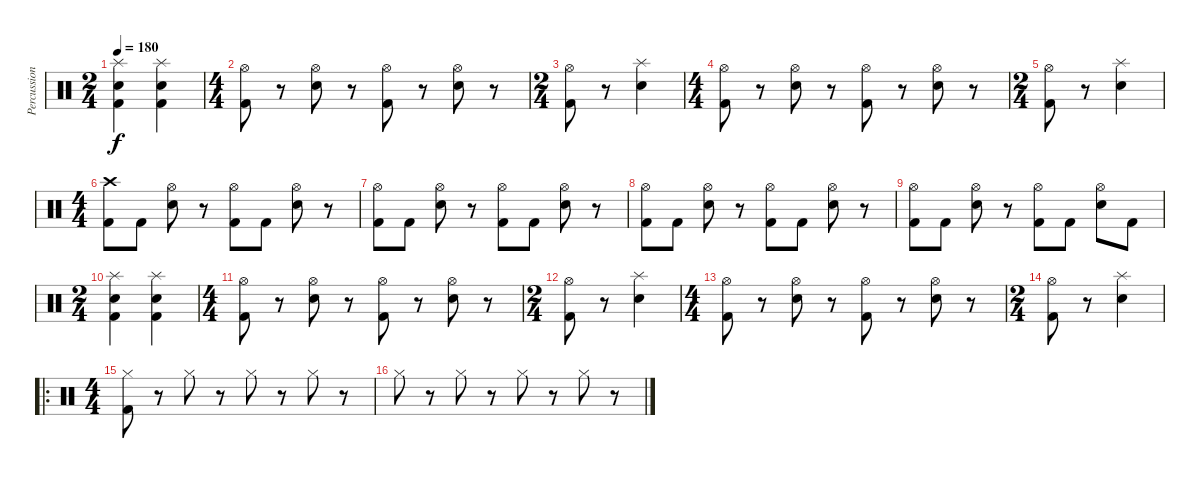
\track ("Percussion" "Percussion") {instrument percussion}
\staff {score}
\articulation defaults
\ts (2 4)
\tempo 180
\clef neutral
\ks c
("Splash (hit)" "Electric Snare (hit)" "Kick (hit) 2").4{dy f} ("Splash (hit)" "Electric Snare (hit)" "Kick (hit) 2").4 |
\ts (4 4)
("Hi-Hat (open)" "Kick (hit) 2").8 r.8 ("Hi-Hat (open)" "Electric Snare (hit)").8 r.8 ("Hi-Hat (open)" "Kick (hit) 2").8 r.8 ("Hi-Hat (open)" "Electric Snare (hit)").8 r.8 |
\ts (2 4)
("Hi-Hat (open)" "Kick (hit) 2").8 r.8 ("Splash (hit)" "Electric Snare (hit)").4 |
\ts (4 4)
("Hi-Hat (open)" "Kick (hit) 2").8 r.8 ("Hi-Hat (open)" "Electric Snare (hit)").8 r.8 ("Hi-Hat (open)" "Kick (hit) 2").8 r.8 ("Hi-Hat (open)" "Electric Snare (hit)").8 r.8 |
\ts (2 4)
("Hi-Hat (open)" "Kick (hit) 2").8 r.8 ("Splash (hit)" "Electric Snare (hit)").4 |
\ts (4 4)
("Crash high (hit)" "Kick (hit) 2").8 "Kick (hit) 2".8 ("Hi-Hat (open)" "Electric Snare (hit)").8 r.8 ("Hi-Hat (open)" "Kick (hit) 2").8 "Kick (hit) 2".8 ("Hi-Hat (open)" "Electric Snare (hit)").8 r.8 |
("Hi-Hat (open)" "Kick (hit) 2").8 "Kick (hit) 2".8 ("Hi-Hat (open)" "Electric Snare (hit)").8 r.8 ("Hi-Hat (open)" "Kick (hit) 2").8 "Kick (hit) 2".8 ("Hi-Hat (open)" "Electric Snare (hit)").8 r.8 |
("Hi-Hat (open)" "Kick (hit) 2").8 "Kick (hit) 2".8 ("Hi-Hat (open)" "Electric Snare (hit)").8 r.8 ("Hi-Hat (open)" "Kick (hit) 2").8 "Kick (hit) 2".8 ("Hi-Hat (open)" "Electric Snare (hit)").8 r.8 |
("Hi-Hat (open)" "Kick (hit) 2").8 "Kick (hit) 2".8 ("Hi-Hat (open)" "Electric Snare (hit)").8 r.8 ("Hi-Hat (open)" "Kick (hit) 2").8 "Kick (hit) 2".8 ("Hi-Hat (open)" "Electric Snare (hit)").8 "Kick (hit) 2".8 |
\ts (2 4)
("Splash (hit)" "Electric Snare (hit)" "Kick (hit) 2").4 ("Splash (hit)" "Electric Snare (hit)" "Kick (hit) 2").4 |
\ts (4 4)
("Hi-Hat (open)" "Kick (hit) 2").8 r.8 ("Hi-Hat (open)" "Electric Snare (hit)").8 r.8 ("Hi-Hat (open)" "Kick (hit) 2").8 r.8 ("Hi-Hat (open)" "Electric Snare (hit)").8 r.8 |
\ts (2 4)
("Hi-Hat (open)" "Kick (hit) 2").8 r.8 ("Splash (hit)" "Electric Snare (hit)").4 |
\ts (4 4)
("Hi-Hat (open)" "Kick (hit) 2").8 r.8 ("Hi-Hat (open)" "Electric Snare (hit)").8 r.8 ("Hi-Hat (open)" "Kick (hit) 2").8 r.8 ("Hi-Hat (open)" "Electric Snare (hit)").8 r.8 |
\ts (2 4)
("Hi-Hat (open)" "Kick (hit) 2").8 r.8 ("Splash (hit)" "Electric Snare (hit)").4 |
\ro
\ts (4 4)
("Hi-Hat (closed)" "Kick (hit) 2").8 r.8 "Hi-Hat (closed)".8 r.8 "Hi-Hat (closed)".8 r.8 "Hi-Hat (closed)".8 r.8 |
"Hi-Hat (closed)".8 r.8 "Hi-Hat (closed)".8 r.8 "Hi-Hat (closed)".8 r.8 "Hi-Hat (closed)".8 r.8
